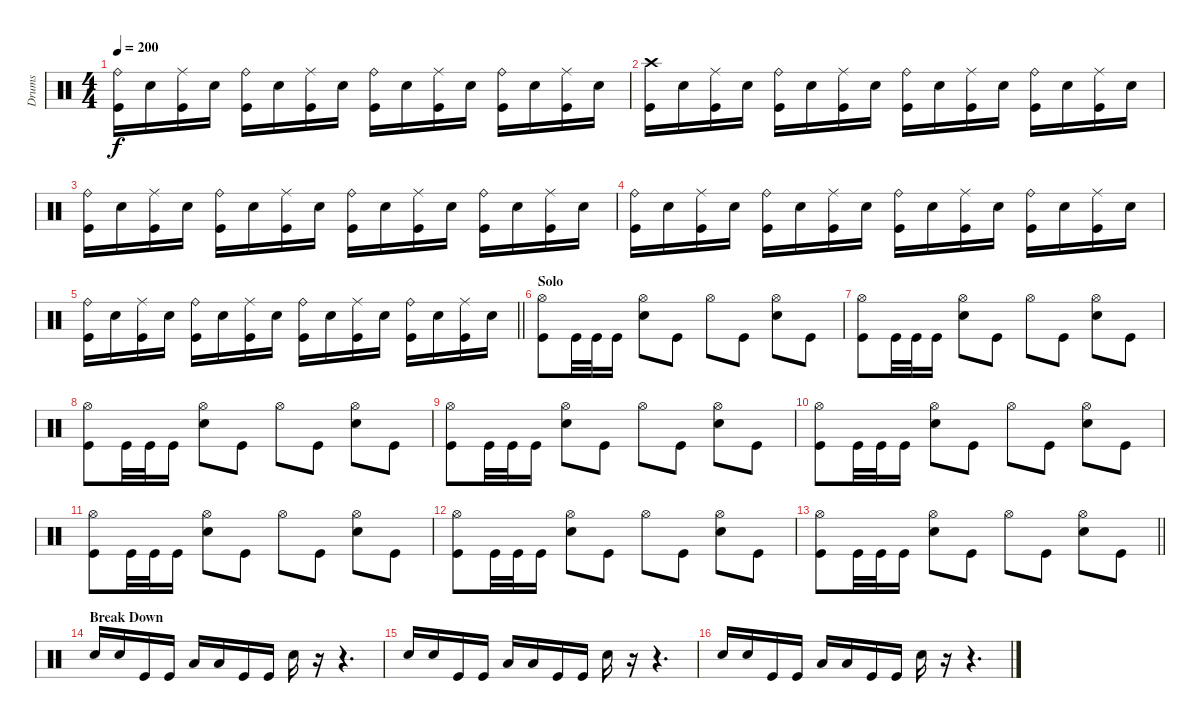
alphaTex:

\track ("Drums" "Drums") {instrument percussion}
\staff {score}
\articulation defaults
\ts (4 4)
\tempo 200
\clef neutral
\ks c
("Ride (bell)" "Kick (hit)").16{dy f} "Snare (hit) 2".16 ("Ride (middle)" "Kick (hit)").16 "Snare (hit) 2".16 ("Ride (bell)" "Kick (hit)").16 "Snare (hit) 2".16 ("Ride (middle)" "Kick (hit)").16 "Snare (hit) 2".16 ("Ride (bell)" "Kick (hit)").16 "Snare (hit) 2".16 ("Ride (middle)" "Kick (hit)").16 "Snare (hit) 2".16 ("Ride (bell)" "Kick (hit)").16 "Snare (hit) 2".16 ("Ride (middle)" "Kick (hit)").16 "Snare (hit) 2".16 |
("Crash high (hit)" "Kick (hit)").16 "Snare (hit) 2".16 ("Ride (middle)" "Kick (hit)").16 "Snare (hit) 2".16 ("Ride (bell)" "Kick (hit)").16 "Snare (hit) 2".16 ("Ride (middle)" "Kick (hit)").16 "Snare (hit) 2".16 ("Ride (bell)" "Kick (hit)").16 "Snare (hit) 2".16 ("Ride (middle)" "Kick (hit)").16 "Snare (hit) 2".16 ("Ride (bell)" "Kick (hit)").16 "Snare (hit) 2".16 ("Ride (middle)" "Kick (hit)").16 "Snare (hit) 2".16 |
("Ride (bell)" "Kick (hit)").16 "Snare (hit) 2".16 ("Ride (middle)" "Kick (hit)").16 "Snare (hit) 2".16 ("Ride (bell)" "Kick (hit)").16 "Snare (hit) 2".16 ("Ride (middle)" "Kick (hit)").16 "Snare (hit) 2".16 ("Ride (bell)" "Kick (hit)").16 "Snare (hit) 2".16 ("Ride (middle)" "Kick (hit)").16 "Snare (hit) 2".16 ("Ride (bell)" "Kick (hit)").16 "Snare (hit) 2".16 ("Ride (middle)" "Kick (hit)").16 "Snare (hit) 2".16 |
("Ride (bell)" "Kick (hit)").16 "Snare (hit) 2".16 ("Ride (middle)" "Kick (hit)").16 "Snare (hit) 2".16 ("Ride (bell)" "Kick (hit)").16 "Snare (hit) 2".16 ("Ride (middle)" "Kick (hit)").16 "Snare (hit) 2".16 ("Ride (bell)" "Kick (hit)").16 "Snare (hit) 2".16 ("Ride (middle)" "Kick (hit)").16 "Snare (hit) 2".16 ("Ride (bell)" "Kick (hit)").16 "Snare (hit) 2".16 ("Ride (middle)" "Kick (hit)").16 "Snare (hit) 2".16 |
\barLineRight lightlight
("Ride (bell)" "Kick (hit)").16 "Snare (hit) 2".16 ("Ride (middle)" "Kick (hit)").16 "Snare (hit) 2".16 ("Ride (bell)" "Kick (hit)").16 "Snare (hit) 2".16 ("Ride (middle)" "Kick (hit)").16 "Snare (hit) 2".16 ("Ride (bell)" "Kick (hit)").16 "Snare (hit) 2".16 ("Ride (middle)" "Kick (hit)").16 "Snare (hit) 2".16 ("Ride (bell)" "Kick (hit)").16 "Snare (hit) 2".16 ("Ride (middle)" "Kick (hit)").16 "Snare (hit) 2".16 |
\section ("" "Solo")
("Hi-Hat (open)" "Kick (hit)").8 "Kick (hit)".32 "Kick (hit)".32 "Kick (hit)".16 ("Hi-Hat (open)" "Snare (hit) 2").8 "Kick (hit)".8 "Hi-Hat (open)".8 "Kick (hit)".8 ("Hi-Hat (open)" "Snare (hit) 2").8 "Kick (hit)".8 |
("Hi-Hat (open)" "Kick (hit)").8 "Kick (hit)".32 "Kick (hit)".32 "Kick (hit)".16 ("Hi-Hat (open)" "Snare (hit) 2").8 "Kick (hit)".8 "Hi-Hat (open)".8 "Kick (hit)".8 ("Hi-Hat (open)" "Snare (hit) 2").8 "Kick (hit)".8 |
("Hi-Hat (open)" "Kick (hit)").8 "Kick (hit)".32 "Kick (hit)".32 "Kick (hit)".16 ("Hi-Hat (open)" "Snare (hit) 2").8 "Kick (hit)".8 "Hi-Hat (open)".8 "Kick (hit)".8 ("Hi-Hat (open)" "Snare (hit) 2").8 "Kick (hit)".8 |
("Hi-Hat (open)" "Kick (hit)").8 "Kick (hit)".32 "Kick (hit)".32 "Kick (hit)".16 ("Hi-Hat (open)" "Snare (hit) 2").8 "Kick (hit)".8 "Hi-Hat (open)".8 "Kick (hit)".8 ("Hi-Hat (open)" "Snare (hit) 2").8 "Kick (hit)".8 |
("Hi-Hat (open)" "Kick (hit)").8 "Kick (hit)".32 "Kick (hit)".32 "Kick (hit)".16 ("Hi-Hat (open)" "Snare (hit) 2").8 "Kick (hit)".8 "Hi-Hat (open)".8 "Kick (hit)".8 ("Hi-Hat (open)" "Snare (hit) 2").8 "Kick (hit)".8 |
("Hi-Hat (open)" "Kick (hit)").8 "Kick (hit)".32 "Kick (hit)".32 "Kick (hit)".16 ("Hi-Hat (open)" "Snare (hit) 2").8 "Kick (hit)".8 "Hi-Hat (open)".8 "Kick (hit)".8 ("Hi-Hat (open)" "Snare (hit) 2").8 "Kick (hit)".8 |
("Hi-Hat (open)" "Kick (hit)").8 "Kick (hit)".32 "Kick (hit)".32 "Kick (hit)".16 ("Hi-Hat (open)" "Snare (hit) 2").8 "Kick (hit)".8 "Hi-Hat (open)".8 "Kick (hit)".8 ("Hi-Hat (open)" "Snare (hit) 2").8 "Kick (hit)".8 |
\barLineRight lightlight
("Hi-Hat (open)" "Kick (hit)").8 "Kick (hit)".32 "Kick (hit)".32 "Kick (hit)".16 ("Hi-Hat (open)" "Snare (hit) 2").8 "Kick (hit)".8 "Hi-Hat (open)".8 "Kick (hit)".8 ("Hi-Hat (open)" "Snare (hit) 2").8 "Kick (hit)".8 |
\section ("" "Break Down")
"Snare (hit) 2".16 "Snare (hit) 2".16 "Kick (hit)".16 "Kick (hit)".16 "Low Tom (hit)".16 "Low Tom (hit)".16 "Kick (hit)".16 "Kick (hit)".16 "Snare (hit) 2".16 r.16 r.4{d} |
"Snare (hit) 2".16 "Snare (hit) 2".16 "Kick (hit)".16 "Kick (hit)".16 "Low Tom (hit)".16 "Low Tom (hit)".16 "Kick (hit)".16 "Kick (hit)".16 "Snare (hit) 2".16 r.16 r.4{d} |
"Snare (hit) 2".16 "Snare (hit) 2".16 "Kick (hit)".16 "Kick (hit)".16 "Low Tom (hit)".16 "Low Tom (hit)".16 "Kick (hit)".16 "Kick (hit)".16 "Snare (hit) 2".16 r.16 r.4{d}
